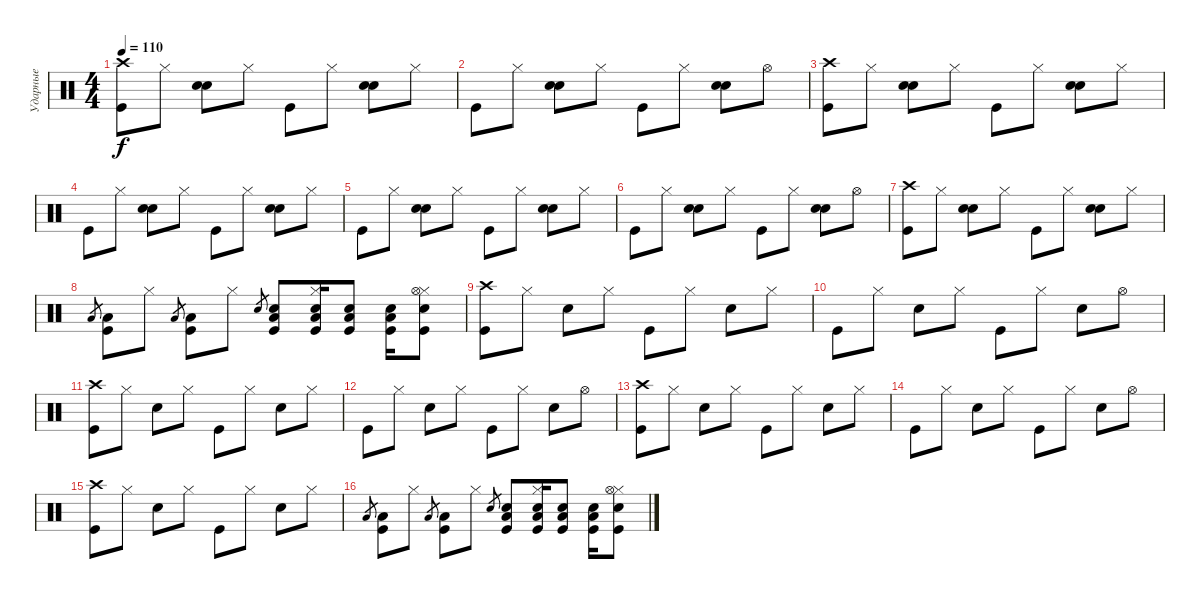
\track ("Ударные" "Ударные") {instrument percussion}
\staff
\articulation defaults
\ts (4 4)
\tempo 110
\clef neutral
\ks c
("Crash high (hit)" "Kick (hit)").8{dy f} "Hi-Hat (closed)".8 ("Hand Clap (hit)" "Snare (hit) 2").8 "Hi-Hat (closed)".8 "Kick (hit)".8 "Hi-Hat (closed)".8 ("Hand Clap (hit)" "Snare (hit) 2").8 "Hi-Hat (closed)".8 |
"Kick (hit)".8 "Hi-Hat (closed)".8 ("Hand Clap (hit)" "Snare (hit) 2").8 "Hi-Hat (closed)".8 "Kick (hit)".8 "Hi-Hat (closed)".8 ("Hand Clap (hit)" "Snare (hit) 2").8 "Hi-Hat (open)".8 |
("Crash high (hit)" "Kick (hit)").8 "Hi-Hat (closed)".8 ("Hand Clap (hit)" "Snare (hit) 2").8 "Hi-Hat (closed)".8 "Kick (hit)".8 "Hi-Hat (closed)".8 ("Hand Clap (hit)" "Snare (hit) 2").8 "Hi-Hat (closed)".8 |
"Kick (hit)".8 "Hi-Hat (closed)".8 ("Hand Clap (hit)" "Snare (hit) 2").8 "Hi-Hat (closed)".8 "Kick (hit)".8 "Hi-Hat (closed)".8 ("Hand Clap (hit)" "Snare (hit) 2").8 "Hi-Hat (closed)".8 |
"Kick (hit)".8 "Hi-Hat (closed)".8 ("Hand Clap (hit)" "Snare (hit) 2").8 "Hi-Hat (closed)".8 "Kick (hit)".8 "Hi-Hat (closed)".8 ("Hand Clap (hit)" "Snare (hit) 2").8 "Hi-Hat (closed)".8 |
"Kick (hit)".8 "Hi-Hat (closed)".8 ("Hand Clap (hit)" "Snare (hit) 2").8 "Hi-Hat (closed)".8 "Kick (hit)".8 "Hi-Hat (closed)".8 ("Hand Clap (hit)" "Snare (hit) 2").8 "Hi-Hat (open)".8 |
("Crash high (hit)" "Kick (hit)").8 "Hi-Hat (closed)".8 ("Hand Clap (hit)" "Snare (hit) 2").8 "Hi-Hat (closed)".8 "Kick (hit)".8 "Hi-Hat (closed)".8 ("Hand Clap (hit)" "Snare (hit) 2").8 "Hi-Hat (closed)".8 |
"Low Floor Tom (hit)".8{gr} ("Low Floor Tom (hit)" "Kick (hit)").8 "Hi-Hat (closed)".8 "Low Floor Tom (hit)".8{gr} ("Low Floor Tom (hit)" "Kick (hit)").8 "Hi-Hat (closed)".8 "Snare (hit) 2".8{gr} ("Low Floor Tom (hit)" "Snare (hit) 2" "Kick (hit)").8 ("Hi-Hat (closed)" "Low Floor Tom (hit)" "Snare (hit) 2" "Kick (hit)").16 ("Low Floor Tom (hit)" "Snare (hit) 2" "Kick (hit)").8 ("Low Floor Tom (hit)" "Snare (hit) 2" "Kick (hit)").16 ("Hi-Hat (closed)" "Hi-Hat (open)" "Snare (hit) 2" "Kick (hit)").8 |
("Crash high (hit)" "Kick (hit)").8 "Hi-Hat (closed)".8 "Snare (hit) 2".8 "Hi-Hat (closed)".8 "Kick (hit)".8 "Hi-Hat (closed)".8 "Snare (hit) 2".8 "Hi-Hat (closed)".8 |
"Kick (hit)".8 "Hi-Hat (closed)".8 "Snare (hit) 2".8 "Hi-Hat (closed)".8 "Kick (hit)".8 "Hi-Hat (closed)".8 "Snare (hit) 2".8 "Hi-Hat (open)".8 |
("Crash high (hit)" "Kick (hit)").8 "Hi-Hat (closed)".8 "Snare (hit) 2".8 "Hi-Hat (closed)".8 "Kick (hit)".8 "Hi-Hat (closed)".8 "Snare (hit) 2".8 "Hi-Hat (closed)".8 |
"Kick (hit)".8 "Hi-Hat (closed)".8 "Snare (hit) 2".8 "Hi-Hat (closed)".8 "Kick (hit)".8 "Hi-Hat (closed)".8 "Snare (hit) 2".8 "Hi-Hat (open)".8 |
("Crash high (hit)" "Kick (hit)").8 "Hi-Hat (closed)".8 "Snare (hit) 2".8 "Hi-Hat (closed)".8 "Kick (hit)".8 "Hi-Hat (closed)".8 "Snare (hit) 2".8 "Hi-Hat (closed)".8 |
"Kick (hit)".8 "Hi-Hat (closed)".8 "Snare (hit) 2".8 "Hi-Hat (closed)".8 "Kick (hit)".8 "Hi-Hat (closed)".8 "Snare (hit) 2".8 "Hi-Hat (open)".8 |
("Crash high (hit)" "Kick (hit)").8 "Hi-Hat (closed)".8 "Snare (hit) 2".8 "Hi-Hat (closed)".8 "Kick (hit)".8 "Hi-Hat (closed)".8 "Snare (hit) 2".8 "Hi-Hat (closed)".8 |
"Low Floor Tom (hit)".8{gr} ("Low Floor Tom (hit)" "Kick (hit)").8 "Hi-Hat (closed)".8 "Low Floor Tom (hit)".8{gr} ("Low Floor Tom (hit)" "Kick (hit)").8 "Hi-Hat (closed)".8 "Snare (hit) 2".8{gr} ("Low Floor Tom (hit)" "Snare (hit) 2" "Kick (hit)").8 ("Hi-Hat (closed)" "Low Floor Tom (hit)" "Snare (hit) 2" "Kick (hit)").16 ("Low Floor Tom (hit)" "Snare (hit) 2" "Kick (hit)").8 ("Low Floor Tom (hit)" "Snare (hit) 2" "Kick (hit)").16 ("Hi-Hat (closed)" "Hi-Hat (open)" "Snare (hit) 2" "Kick (hit)").8
